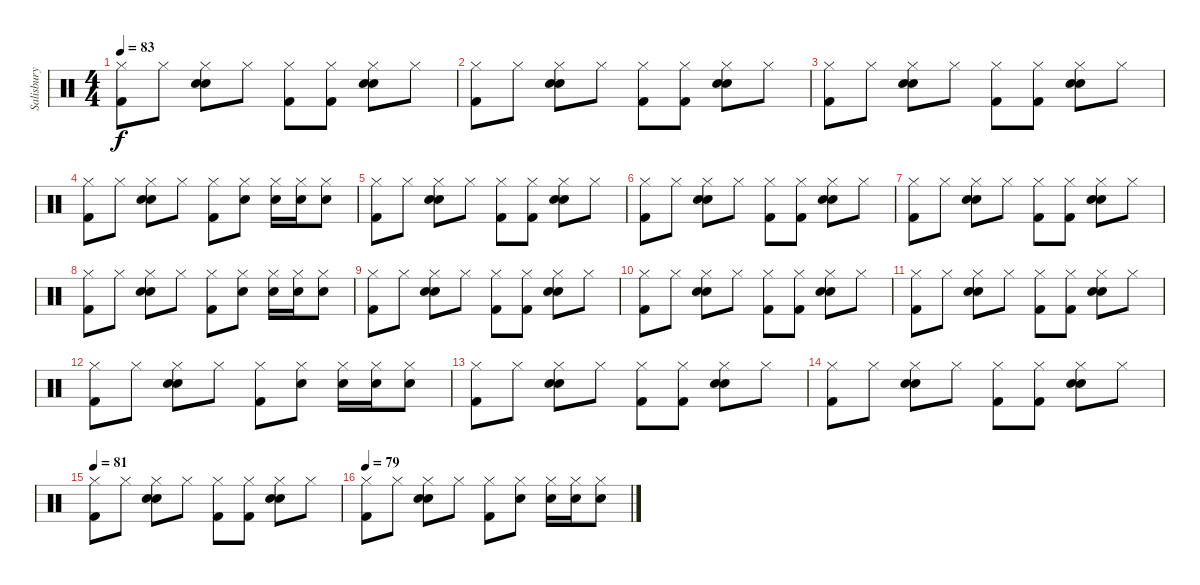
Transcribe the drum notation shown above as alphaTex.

\track ("Salisbury" "Salisbury") {instrument percussion}
\staff {score}
\articulation defaults
\ts (4 4)
\tempo 83
\clef neutral
\ks c
("Hi-Hat (closed)" "Kick (hit) 2").8{dy f} "Hi-Hat (closed)".8 ("Hi-Hat (closed)" "Electric Snare (hit)" "Hand Clap (hit)").8 "Hi-Hat (closed)".8 ("Hi-Hat (closed)" "Kick (hit) 2").8 ("Hi-Hat (closed)" "Kick (hit) 2").8 ("Hi-Hat (closed)" "Electric Snare (hit)" "Hand Clap (hit)").8 "Hi-Hat (closed)".8 |
("Hi-Hat (closed)" "Kick (hit) 2").8 "Hi-Hat (closed)".8 ("Hi-Hat (closed)" "Electric Snare (hit)" "Hand Clap (hit)").8 "Hi-Hat (closed)".8 ("Hi-Hat (closed)" "Kick (hit) 2").8 ("Hi-Hat (closed)" "Kick (hit) 2").8 ("Hi-Hat (closed)" "Electric Snare (hit)" "Hand Clap (hit)").8 "Hi-Hat (closed)".8 |
("Hi-Hat (closed)" "Kick (hit) 2").8 "Hi-Hat (closed)".8 ("Hi-Hat (closed)" "Electric Snare (hit)" "Hand Clap (hit)").8 "Hi-Hat (closed)".8 ("Hi-Hat (closed)" "Kick (hit) 2").8 ("Hi-Hat (closed)" "Kick (hit) 2").8 ("Hi-Hat (closed)" "Electric Snare (hit)" "Hand Clap (hit)").8 "Hi-Hat (closed)".8 |
("Hi-Hat (closed)" "Kick (hit) 2").8 "Hi-Hat (closed)".8 ("Hi-Hat (closed)" "Electric Snare (hit)" "Hand Clap (hit)").8 "Hi-Hat (closed)".8 ("Hi-Hat (closed)" "Kick (hit) 2").8 ("Hi-Hat (closed)" "Electric Snare (hit)").8 ("Hi-Hat (closed)" "Electric Snare (hit)").16 ("Hi-Hat (closed)" "Electric Snare (hit)").16 ("Hi-Hat (closed)" "Electric Snare (hit)").8 |
("Hi-Hat (closed)" "Kick (hit) 2").8 "Hi-Hat (closed)".8 ("Hi-Hat (closed)" "Electric Snare (hit)" "Hand Clap (hit)").8 "Hi-Hat (closed)".8 ("Hi-Hat (closed)" "Kick (hit) 2").8 ("Hi-Hat (closed)" "Kick (hit) 2").8 ("Hi-Hat (closed)" "Electric Snare (hit)" "Hand Clap (hit)").8 "Hi-Hat (closed)".8 |
("Hi-Hat (closed)" "Kick (hit) 2").8 "Hi-Hat (closed)".8 ("Hi-Hat (closed)" "Electric Snare (hit)" "Hand Clap (hit)").8 "Hi-Hat (closed)".8 ("Hi-Hat (closed)" "Kick (hit) 2").8 ("Hi-Hat (closed)" "Kick (hit) 2").8 ("Hi-Hat (closed)" "Electric Snare (hit)" "Hand Clap (hit)").8 "Hi-Hat (closed)".8 |
("Hi-Hat (closed)" "Kick (hit) 2").8 "Hi-Hat (closed)".8 ("Hi-Hat (closed)" "Electric Snare (hit)" "Hand Clap (hit)").8 "Hi-Hat (closed)".8 ("Hi-Hat (closed)" "Kick (hit) 2").8 ("Hi-Hat (closed)" "Kick (hit) 2").8 ("Hi-Hat (closed)" "Electric Snare (hit)" "Hand Clap (hit)").8 "Hi-Hat (closed)".8 |
("Hi-Hat (closed)" "Kick (hit) 2").8 "Hi-Hat (closed)".8 ("Hi-Hat (closed)" "Electric Snare (hit)" "Hand Clap (hit)").8 "Hi-Hat (closed)".8 ("Hi-Hat (closed)" "Kick (hit) 2").8 ("Hi-Hat (closed)" "Electric Snare (hit)").8 ("Hi-Hat (closed)" "Electric Snare (hit)").16 ("Hi-Hat (closed)" "Electric Snare (hit)").16 ("Hi-Hat (closed)" "Electric Snare (hit)").8 |
("Hi-Hat (closed)" "Kick (hit) 2").8 "Hi-Hat (closed)".8 ("Hi-Hat (closed)" "Electric Snare (hit)" "Hand Clap (hit)").8 "Hi-Hat (closed)".8 ("Hi-Hat (closed)" "Kick (hit) 2").8 ("Hi-Hat (closed)" "Kick (hit) 2").8 ("Hi-Hat (closed)" "Electric Snare (hit)" "Hand Clap (hit)").8 "Hi-Hat (closed)".8 |
("Hi-Hat (closed)" "Kick (hit) 2").8 "Hi-Hat (closed)".8 ("Hi-Hat (closed)" "Electric Snare (hit)" "Hand Clap (hit)").8 "Hi-Hat (closed)".8 ("Hi-Hat (closed)" "Kick (hit) 2").8 ("Hi-Hat (closed)" "Kick (hit) 2").8 ("Hi-Hat (closed)" "Electric Snare (hit)" "Hand Clap (hit)").8 "Hi-Hat (closed)".8 |
("Hi-Hat (closed)" "Kick (hit) 2").8 "Hi-Hat (closed)".8 ("Hi-Hat (closed)" "Electric Snare (hit)" "Hand Clap (hit)").8 "Hi-Hat (closed)".8 ("Hi-Hat (closed)" "Kick (hit) 2").8 ("Hi-Hat (closed)" "Kick (hit) 2").8 ("Hi-Hat (closed)" "Electric Snare (hit)" "Hand Clap (hit)").8 "Hi-Hat (closed)".8 |
("Hi-Hat (closed)" "Kick (hit) 2").8 "Hi-Hat (closed)".8 ("Hi-Hat (closed)" "Electric Snare (hit)" "Hand Clap (hit)").8 "Hi-Hat (closed)".8 ("Hi-Hat (closed)" "Kick (hit) 2").8 ("Hi-Hat (closed)" "Electric Snare (hit)").8 ("Hi-Hat (closed)" "Electric Snare (hit)").16 ("Hi-Hat (closed)" "Electric Snare (hit)").16 ("Hi-Hat (closed)" "Electric Snare (hit)").8 |
("Hi-Hat (closed)" "Kick (hit) 2").8 "Hi-Hat (closed)".8 ("Hi-Hat (closed)" "Electric Snare (hit)" "Hand Clap (hit)").8 "Hi-Hat (closed)".8 ("Hi-Hat (closed)" "Kick (hit) 2").8 ("Hi-Hat (closed)" "Kick (hit) 2").8 ("Hi-Hat (closed)" "Electric Snare (hit)" "Hand Clap (hit)").8 "Hi-Hat (closed)".8 |
("Hi-Hat (closed)" "Kick (hit) 2").8 "Hi-Hat (closed)".8 ("Hi-Hat (closed)" "Electric Snare (hit)" "Hand Clap (hit)").8 "Hi-Hat (closed)".8 ("Hi-Hat (closed)" "Kick (hit) 2").8 ("Hi-Hat (closed)" "Kick (hit) 2").8 ("Hi-Hat (closed)" "Electric Snare (hit)" "Hand Clap (hit)").8 "Hi-Hat (closed)".8 |
\tempo 81
("Hi-Hat (closed)" "Kick (hit) 2").8 "Hi-Hat (closed)".8 ("Hi-Hat (closed)" "Electric Snare (hit)" "Hand Clap (hit)").8 "Hi-Hat (closed)".8 ("Hi-Hat (closed)" "Kick (hit) 2").8 ("Hi-Hat (closed)" "Kick (hit) 2").8 ("Hi-Hat (closed)" "Electric Snare (hit)" "Hand Clap (hit)").8 "Hi-Hat (closed)".8 |
\tempo 79
("Hi-Hat (closed)" "Kick (hit) 2").8 "Hi-Hat (closed)".8 ("Hi-Hat (closed)" "Electric Snare (hit)" "Hand Clap (hit)").8 "Hi-Hat (closed)".8 ("Hi-Hat (closed)" "Kick (hit) 2").8 ("Hi-Hat (closed)" "Electric Snare (hit)").8 ("Hi-Hat (closed)" "Electric Snare (hit)").16 ("Hi-Hat (closed)" "Electric Snare (hit)").16 ("Hi-Hat (closed)" "Electric Snare (hit)").8
